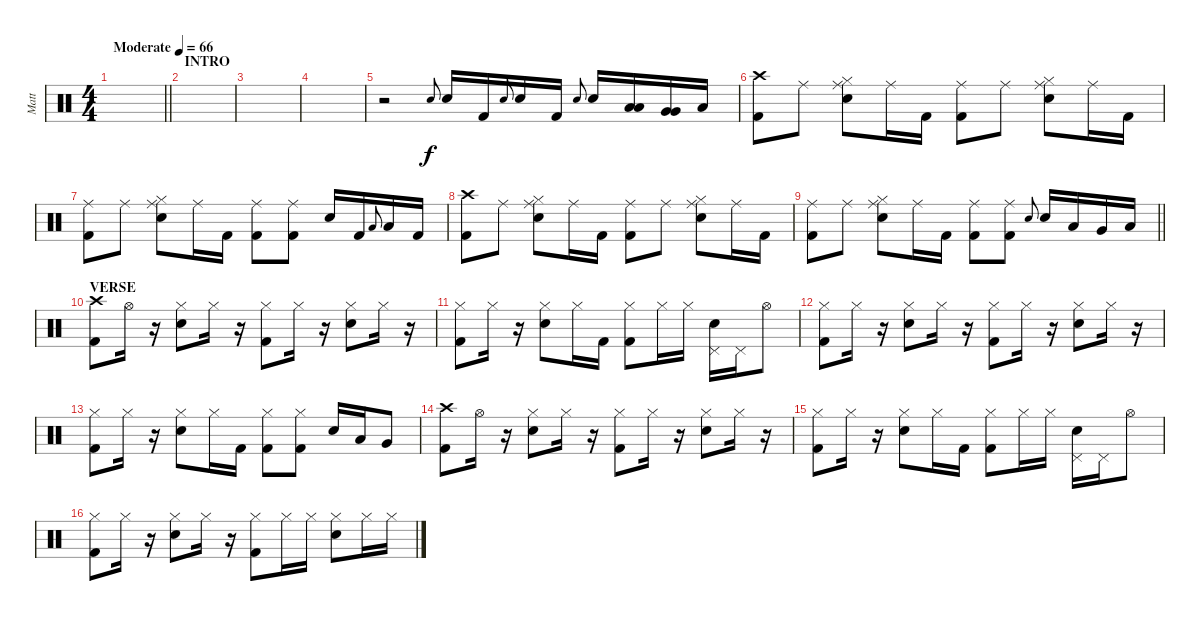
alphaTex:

\track ("Matt" "Matt") {instrument percussion}
\staff {score}
\articulation defaults
\ts (4 4)
\tempo (66 "Moderate")
\clef neutral
\barLineRight lightlight
\ks c
|
\section ("" "INTRO")
|
|
|
r.2 "Snare (hit) 2".8{gr onbeat} "Electric Snare (hit)".16 "Kick (hit) 2".16 "Snare (hit) 2".8{gr onbeat} "Electric Snare (hit)".16 "Kick (hit) 2".16 "Snare (hit) 2".8{gr onbeat} "Electric Snare (hit)".16 ("Low Tom (hit)" "Low Tom (hit)").16 ("Very Low Tom (hit)" "Very Low Tom (hit)").16 "Low Floor Tom (hit)".16 |
("Crash high (hit)" "Kick (hit) 2").8 "Ride (middle)".8 ("Electric Snare (hit)" "Hi-Hat (closed)" "Ride (middle)").8 "Ride (middle)".16 "Kick (hit) 2".16 ("Kick (hit) 2" "Ride (middle)").8 "Ride (middle)".8 ("Electric Snare (hit)" "Hi-Hat (closed)" "Ride (middle)").8 "Ride (middle)".16 "Kick (hit) 2".16 |
("Kick (hit) 2" "Ride (middle)").8 "Ride (middle)".8 ("Electric Snare (hit)" "Hi-Hat (closed)" "Ride (middle)").8 "Ride (middle)".16 "Kick (hit) 2".16 ("Kick (hit) 2" "Ride (middle)").8 ("Kick (hit) 2" "Ride (middle)").8 "Electric Snare (hit)".16 "Kick (hit) 2".16 "Low Tom (hit)".8{gr onbeat} "Low Tom (hit)".16 "Kick (hit) 2".16 |
("Crash high (hit)" "Kick (hit) 2").8 "Ride (middle)".8 ("Electric Snare (hit)" "Hi-Hat (closed)" "Ride (middle)").8 "Ride (middle)".16 "Kick (hit) 2".16 ("Kick (hit) 2" "Ride (middle)").8 "Ride (middle)".8 ("Electric Snare (hit)" "Hi-Hat (closed)" "Ride (middle)").8 "Ride (middle)".16 "Kick (hit) 2".16 |
\barLineRight lightlight
("Kick (hit) 2" "Ride (middle)").8 "Ride (middle)".8 ("Electric Snare (hit)" "Hi-Hat (closed)" "Ride (middle)").8 "Ride (middle)".16 "Kick (hit) 2".16 ("Kick (hit) 2" "Ride (middle)").8 ("Kick (hit) 2" "Ride (middle)").8 "Snare (hit) 2".8{gr onbeat} "Electric Snare (hit)".16 "Low Tom (hit)".16 "Very Low Tom (hit)".16 "Low Floor Tom (hit)".16 |
\section ("" "VERSE")
("Crash high (hit)" "Kick (hit) 2").8 "Hi-Hat (open)".16 r.16 ("Electric Snare (hit)" "Hi-Hat (closed)").8 "Hi-Hat (closed)".16 r.16 ("Kick (hit) 2" "Hi-Hat (closed)").8 "Hi-Hat (closed)".16 r.16 ("Electric Snare (hit)" "Hi-Hat (closed)").8 "Hi-Hat (closed)".16 r.16 |
("Kick (hit) 2" "Hi-Hat (closed)").8 "Hi-Hat (closed)".16 r.16 ("Electric Snare (hit)" "Hi-Hat (closed)").8 "Hi-Hat (closed)".16 "Kick (hit) 2".16 ("Kick (hit) 2" "Hi-Hat (closed)").8 "Hi-Hat (closed)".16 "Hi-Hat (closed)".16 ("Electric Snare (hit)" "Pedal Hi-Hat (hit)").16 "Pedal Hi-Hat (hit)".16 "Hi-Hat (open)".8 |
("Kick (hit) 2" "Hi-Hat (closed)").8 "Hi-Hat (closed)".16 r.16 ("Electric Snare (hit)" "Hi-Hat (closed)").8 "Hi-Hat (closed)".16 r.16 ("Kick (hit) 2" "Hi-Hat (closed)").8 "Hi-Hat (closed)".16 r.16 ("Electric Snare (hit)" "Hi-Hat (closed)").8 "Hi-Hat (closed)".16 r.16 |
("Kick (hit) 2" "Hi-Hat (closed)").8 "Hi-Hat (closed)".16 r.16 ("Electric Snare (hit)" "Hi-Hat (closed)").8 "Hi-Hat (closed)".16 "Kick (hit) 2".16 ("Kick (hit) 2" "Hi-Hat (closed)").8 ("Kick (hit) 2" "Hi-Hat (closed)").8 "Electric Snare (hit)".16 "Low Tom (hit)".16 "Very Low Tom (hit)".8 |
("Crash high (hit)" "Kick (hit) 2").8 "Hi-Hat (open)".16 r.16 ("Electric Snare (hit)" "Hi-Hat (closed)").8 "Hi-Hat (closed)".16 r.16 ("Kick (hit) 2" "Hi-Hat (closed)").8 "Hi-Hat (closed)".16 r.16 ("Electric Snare (hit)" "Hi-Hat (closed)").8 "Hi-Hat (closed)".16 r.16 |
("Kick (hit) 2" "Hi-Hat (closed)").8 "Hi-Hat (closed)".16 r.16 ("Electric Snare (hit)" "Hi-Hat (closed)").8 "Hi-Hat (closed)".16 "Kick (hit) 2".16 ("Kick (hit) 2" "Hi-Hat (closed)").8 "Hi-Hat (closed)".16 "Hi-Hat (closed)".16 ("Electric Snare (hit)" "Pedal Hi-Hat (hit)").16 "Pedal Hi-Hat (hit)".16 "Hi-Hat (open)".8 |
("Kick (hit) 2" "Hi-Hat (closed)").8 "Hi-Hat (closed)".16 r.16 ("Electric Snare (hit)" "Hi-Hat (closed)").8 "Hi-Hat (closed)".16 r.16 ("Kick (hit) 2" "Hi-Hat (closed)").8 "Hi-Hat (closed)".16 "Hi-Hat (closed)".16 ("Electric Snare (hit)" "Hi-Hat (closed)").8 "Hi-Hat (closed)".16 "Hi-Hat (closed)".16
